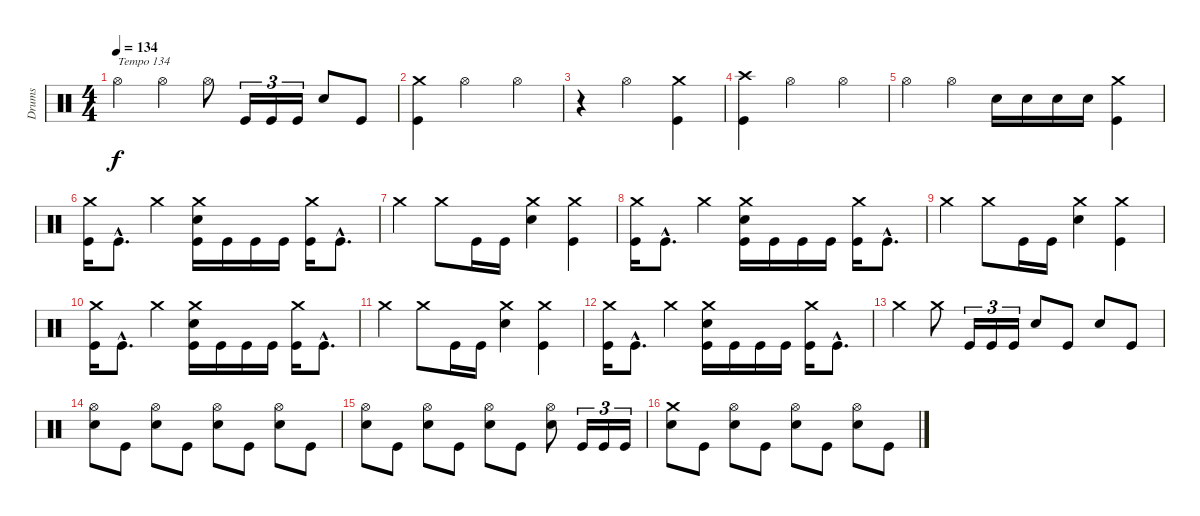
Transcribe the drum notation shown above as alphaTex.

\track ("Drums" "Drums") {instrument percussion}
\staff {score}
\articulation defaults
\ts (4 4)
\tempo 134
\clef neutral
\ks c "Hi-Hat (open)".4{txt "Tempo 134" dy f} "Hi-Hat (open)".4 "Hi-Hat (open)".8 "Kick (hit)".16{tu (3 2)} "Kick (hit)".16{tu (3 2)} "Kick (hit)".16{tu (3 2)} "Electric Snare (hit)".8 "Kick (hit)".8
|
("Crash medium (hit)" "Kick (hit)").4 "Hi-Hat (open)".2 "Hi-Hat (open)".4 |
r.4 "Hi-Hat (open)".2 ("Crash medium (hit)" "Kick (hit)").4 |
("Crash high (hit)" "Kick (hit)").4 "Hi-Hat (open)".2 "Hi-Hat (open)".4 |
"Hi-Hat (open)".4 "Hi-Hat (open)".4 "Electric Snare (hit)".16 "Electric Snare (hit)".16 "Electric Snare (hit)".16 "Electric Snare (hit)".16 ("Crash medium (hit)" "Kick (hit)").4 |
("Crash medium (hit)" "Kick (hit)").16 "Kick (hit)"{hac}.8{d} "Crash medium (hit)".4 ("Kick (hit)" "Crash medium (hit)" "Electric Snare (hit)").16 "Kick (hit)".16 "Kick (hit)".16 "Kick (hit)".16 ("Crash medium (hit)" "Kick (hit)").16 "Kick (hit)"{hac}.8{d} |
"Crash medium (hit)".4 "Crash medium (hit)".8 "Kick (hit)".16 "Kick (hit)".16 ("Crash medium (hit)" "Electric Snare (hit)").4 ("Crash medium (hit)" "Kick (hit)").4 |
("Crash medium (hit)" "Kick (hit)").16 "Kick (hit)"{hac}.8{d} "Crash medium (hit)".4 ("Kick (hit)" "Crash medium (hit)" "Electric Snare (hit)").16 "Kick (hit)".16 "Kick (hit)".16 "Kick (hit)".16 ("Crash medium (hit)" "Kick (hit)").16 "Kick (hit)"{hac}.8{d} |
"Crash medium (hit)".4 "Crash medium (hit)".8 "Kick (hit)".16 "Kick (hit)".16 ("Crash medium (hit)" "Electric Snare (hit)").4 ("Crash medium (hit)" "Kick (hit)").4 |
("Crash medium (hit)" "Kick (hit)").16 "Kick (hit)"{hac}.8{d} "Crash medium (hit)".4 ("Kick (hit)" "Crash medium (hit)" "Electric Snare (hit)").16 "Kick (hit)".16 "Kick (hit)".16 "Kick (hit)".16 ("Crash medium (hit)" "Kick (hit)").16 "Kick (hit)"{hac}.8{d} |
"Crash medium (hit)".4 "Crash medium (hit)".8 "Kick (hit)".16 "Kick (hit)".16 ("Crash medium (hit)" "Electric Snare (hit)").4 ("Crash medium (hit)" "Kick (hit)").4 |
("Crash medium (hit)" "Kick (hit)").16 "Kick (hit)"{hac}.8{d} "Crash medium (hit)".4 ("Kick (hit)" "Crash medium (hit)" "Electric Snare (hit)").16 "Kick (hit)".16 "Kick (hit)".16 "Kick (hit)".16 ("Crash medium (hit)" "Kick (hit)").16 "Kick (hit)"{hac}.8{d} |
"Crash medium (hit)".4 "Crash medium (hit)".8 "Kick (hit)".16{tu (3 2)} "Kick (hit)".16{tu (3 2)} "Kick (hit)".16{tu (3 2)} "Electric Snare (hit)".8 "Kick (hit)".8 "Electric Snare (hit)".8 "Kick (hit)".8 |
("Hi-Hat (open)" "Electric Snare (hit)").8 "Kick (hit)".8 ("Hi-Hat (open)" "Electric Snare (hit)").8 "Kick (hit)".8 ("Hi-Hat (open)" "Electric Snare (hit)").8 "Kick (hit)".8 ("Hi-Hat (open)" "Electric Snare (hit)").8 "Kick (hit)".8 |
("Hi-Hat (open)" "Electric Snare (hit)").8 "Kick (hit)".8 ("Hi-Hat (open)" "Electric Snare (hit)").8 "Kick (hit)".8 ("Hi-Hat (open)" "Electric Snare (hit)").8 "Kick (hit)".8 ("Hi-Hat (open)" "Electric Snare (hit)").8 "Kick (hit)".16{tu (3 2)} "Kick (hit)".16{tu (3 2)} "Kick (hit)".16{tu (3 2)} |
("Crash medium (hit)" "Electric Snare (hit)").8 "Kick (hit)".8 ("Hi-Hat (open)" "Electric Snare (hit)").8 "Kick (hit)".8 ("Hi-Hat (open)" "Electric Snare (hit)").8 "Kick (hit)".8 ("Hi-Hat (open)" "Electric Snare (hit)").8 "Kick (hit)".8
